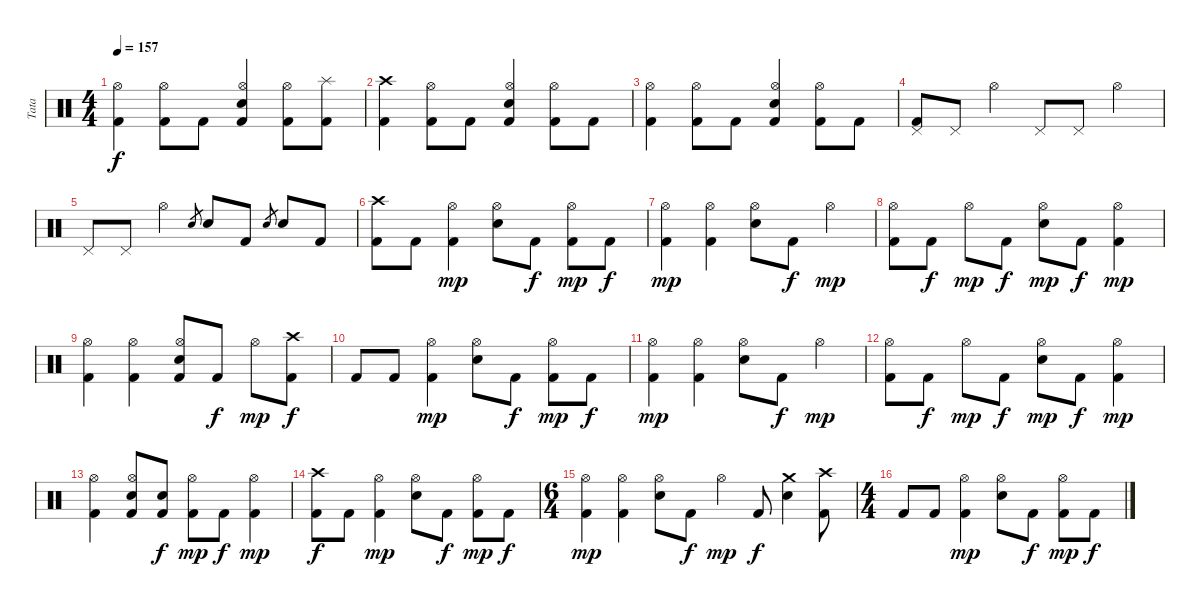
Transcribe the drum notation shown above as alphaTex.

\track ("Tata" "Tata") {instrument percussion}
\staff {score}
\articulation defaults
\ts (4 4)
\tempo 157
\clef neutral
\ks c
("Kick (hit) 2" "Hi-Hat (open)").4{dy f} ("Kick (hit) 2" "Hi-Hat (open)").8 "Kick (hit) 2".8 ("Kick (hit) 2" "Electric Snare (hit)" "Hi-Hat (open)").4 ("Kick (hit) 2" "Hi-Hat (open)").8 ("Kick (hit) 2" "Splash (hit)").8 |
("Kick (hit) 2" "Crash high (hit)").4 ("Kick (hit) 2" "Hi-Hat (open)").8 "Kick (hit) 2".8 ("Kick (hit) 2" "Electric Snare (hit)" "Hi-Hat (open)").4 ("Kick (hit) 2" "Hi-Hat (open)").8 "Kick (hit) 2".8 |
("Kick (hit) 2" "Hi-Hat (open)").4 ("Kick (hit) 2" "Hi-Hat (open)").8 "Kick (hit) 2".8 ("Kick (hit) 2" "Electric Snare (hit)" "Hi-Hat (open)").4 ("Kick (hit) 2" "Hi-Hat (open)").8 "Kick (hit) 2".8 |
("Kick (hit) 2" "Pedal Hi-Hat (hit)").8 "Pedal Hi-Hat (hit)".8 "Hi-Hat (open)".4 "Pedal Hi-Hat (hit)".8 "Pedal Hi-Hat (hit)".8 "Hi-Hat (open)".4 |
"Pedal Hi-Hat (hit)".8 "Pedal Hi-Hat (hit)".8 "Hi-Hat (open)".4 "Electric Snare (hit)".8{gr} "Electric Snare (hit)".8 "Kick (hit) 2".8 "Electric Snare (hit)".8{gr} "Electric Snare (hit)".8 "Kick (hit) 2".8 |
("Kick (hit) 2" "Crash high (hit)").8 "Kick (hit) 2".8 ("Kick (hit) 2" "Hi-Hat (open)").4{dy mp} ("Electric Snare (hit)" "Hi-Hat (open)").8 "Kick (hit) 2".8{dy f} ("Kick (hit) 2" "Hi-Hat (open)").8{dy mp} "Kick (hit) 2".8{dy f} |
("Kick (hit) 2" "Hi-Hat (open)").4{dy mp} ("Kick (hit) 2" "Hi-Hat (open)").4 ("Electric Snare (hit)" "Hi-Hat (open)").8 "Kick (hit) 2".8{dy f} "Hi-Hat (open)".4{dy mp} |
("Kick (hit) 2" "Hi-Hat (open)").8 "Kick (hit) 2".8{dy f} "Hi-Hat (open)".8{dy mp} "Kick (hit) 2".8{dy f} ("Electric Snare (hit)" "Hi-Hat (open)").8{dy mp} "Kick (hit) 2".8{dy f} ("Kick (hit) 2" "Hi-Hat (open)").4{dy mp} |
("Kick (hit) 2" "Hi-Hat (open)").4 ("Kick (hit) 2" "Hi-Hat (open)").4 ("Kick (hit) 2" "Electric Snare (hit)" "Hi-Hat (open)").8 "Kick (hit) 2".8{dy f} "Hi-Hat (open)".8{dy mp} ("Kick (hit) 2" "Crash high (hit)").8{dy f} |
"Kick (hit) 2".8 "Kick (hit) 2".8 ("Kick (hit) 2" "Hi-Hat (open)").4{dy mp} ("Electric Snare (hit)" "Hi-Hat (open)").8 "Kick (hit) 2".8{dy f} ("Kick (hit) 2" "Hi-Hat (open)").8{dy mp} "Kick (hit) 2".8{dy f} |
("Kick (hit) 2" "Hi-Hat (open)").4{dy mp} ("Kick (hit) 2" "Hi-Hat (open)").4 ("Electric Snare (hit)" "Hi-Hat (open)").8 "Kick (hit) 2".8{dy f} "Hi-Hat (open)".4{dy mp} |
("Kick (hit) 2" "Hi-Hat (open)").8 "Kick (hit) 2".8{dy f} "Hi-Hat (open)".8{dy mp} "Kick (hit) 2".8{dy f} ("Electric Snare (hit)" "Hi-Hat (open)").8{dy mp} "Kick (hit) 2".8{dy f} ("Kick (hit) 2" "Hi-Hat (open)").4{dy mp} |
("Kick (hit) 2" "Hi-Hat (open)").4 ("Kick (hit) 2" "Electric Snare (hit)" "Hi-Hat (open)").8 ("Kick (hit) 2" "Electric Snare (hit)").8{dy f} ("Kick (hit) 2" "Hi-Hat (open)").8{dy mp} "Kick (hit) 2".8{dy f} ("Kick (hit) 2" "Hi-Hat (open)").4{dy mp} |
("Kick (hit) 2" "Crash high (hit)").8{dy f} "Kick (hit) 2".8 ("Kick (hit) 2" "Hi-Hat (open)").4{dy mp} ("Electric Snare (hit)" "Hi-Hat (open)").8 "Kick (hit) 2".8{dy f} ("Kick (hit) 2" "Hi-Hat (open)").8{dy mp} "Kick (hit) 2".8{dy f} |
\ts (6 4)
("Kick (hit) 2" "Hi-Hat (open)").4{dy mp} ("Kick (hit) 2" "Hi-Hat (open)").4 ("Electric Snare (hit)" "Hi-Hat (open)").8 "Kick (hit) 2".8{dy f} "Hi-Hat (open)".4{dy mp} "Kick (hit) 2".8{dy f} ("Electric Snare (hit)" "Crash medium (hit)").4 ("Kick (hit) 2" "Crash high (hit)").8 |
\ts (4 4)
"Kick (hit) 2".8 "Kick (hit) 2".8 ("Kick (hit) 2" "Hi-Hat (open)").4{dy mp} ("Electric Snare (hit)" "Hi-Hat (open)").8 "Kick (hit) 2".8{dy f} ("Kick (hit) 2" "Hi-Hat (open)").8{dy mp} "Kick (hit) 2".8{dy f}
